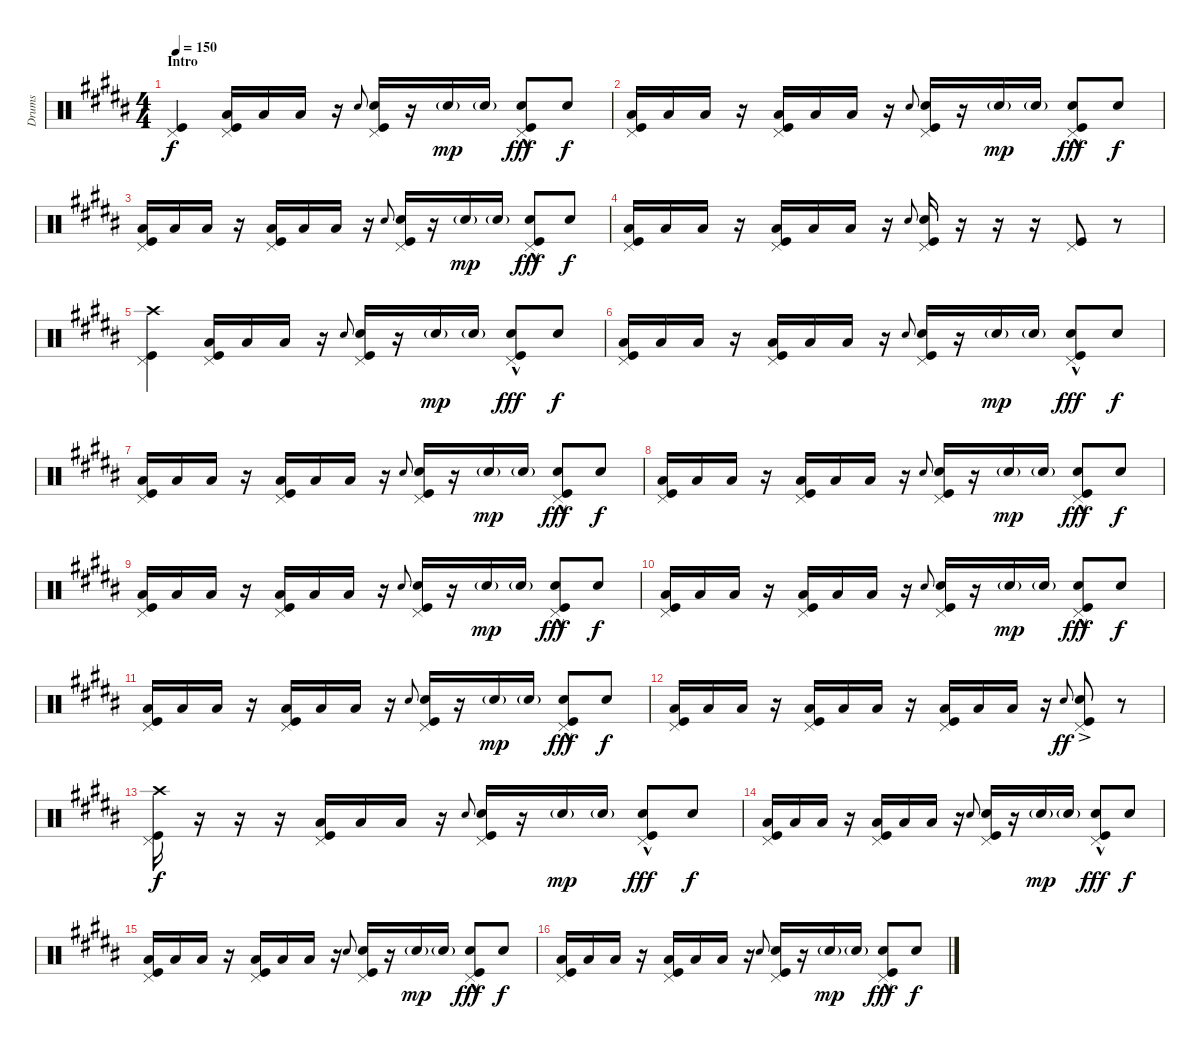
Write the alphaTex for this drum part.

\track ("Drums" "Drums") {instrument percussion}
\staff {score}
\articulation defaults
\ts (4 4)
\section ("" "Intro")
\tempo 150
\clef neutral
\ks b
("Kick (hit)" "Pedal Hi-Hat (hit)").4{dy f} ("Low Floor Tom (hit)" "Kick (hit)" "Pedal Hi-Hat (hit)").16 "Low Floor Tom (hit)".16 "Low Floor Tom (hit)".16 r.16 "Snare (hit) 2".8{gr onbeat} ("Snare (hit) 2" "Kick (hit)" "Pedal Hi-Hat (hit)").16 r.16 "Snare (hit) 2"{g}.16{dy mp} "Snare (hit) 2"{g}.16 ("Snare (hit) 2"{hac} "Kick (hit)" "Pedal Hi-Hat (hit)").8{dy fff} "Snare (hit) 2".8{dy f} |
("Low Floor Tom (hit)" "Kick (hit)" "Pedal Hi-Hat (hit)").16 "Low Floor Tom (hit)".16 "Low Floor Tom (hit)".16 r.16 ("Low Floor Tom (hit)" "Kick (hit)" "Pedal Hi-Hat (hit)").16 "Low Floor Tom (hit)".16 "Low Floor Tom (hit)".16 r.16 "Snare (hit) 2".8{gr onbeat} ("Snare (hit) 2" "Kick (hit)" "Pedal Hi-Hat (hit)").16 r.16 "Snare (hit) 2"{g}.16{dy mp} "Snare (hit) 2"{g}.16 ("Snare (hit) 2"{hac} "Kick (hit)" "Pedal Hi-Hat (hit)").8{dy fff} "Snare (hit) 2".8{dy f} |
("Low Floor Tom (hit)" "Kick (hit)" "Pedal Hi-Hat (hit)").16 "Low Floor Tom (hit)".16 "Low Floor Tom (hit)".16 r.16 ("Low Floor Tom (hit)" "Kick (hit)" "Pedal Hi-Hat (hit)").16 "Low Floor Tom (hit)".16 "Low Floor Tom (hit)".16 r.16 "Snare (hit) 2".8{gr onbeat} ("Snare (hit) 2" "Kick (hit)" "Pedal Hi-Hat (hit)").16 r.16 "Snare (hit) 2"{g}.16{dy mp} "Snare (hit) 2"{g}.16 ("Snare (hit) 2"{hac} "Kick (hit)" "Pedal Hi-Hat (hit)").8{dy fff} "Snare (hit) 2".8{dy f} |
("Low Floor Tom (hit)" "Kick (hit)" "Pedal Hi-Hat (hit)").16 "Low Floor Tom (hit)".16 "Low Floor Tom (hit)".16 r.16 ("Low Floor Tom (hit)" "Kick (hit)" "Pedal Hi-Hat (hit)").16 "Low Floor Tom (hit)".16 "Low Floor Tom (hit)".16 r.16 "Snare (hit) 2".8{gr onbeat} ("Snare (hit) 2" "Kick (hit)" "Pedal Hi-Hat (hit)").16 r.16 r.16 r.16 ("Kick (hit)" "Pedal Hi-Hat (hit)").8 r.8 |
("Crash high (hit)" "Kick (hit)" "Pedal Hi-Hat (hit)").4 ("Low Floor Tom (hit)" "Kick (hit)" "Pedal Hi-Hat (hit)").16 "Low Floor Tom (hit)".16 "Low Floor Tom (hit)".16 r.16 "Snare (hit) 2".8{gr onbeat} ("Snare (hit) 2" "Kick (hit)" "Pedal Hi-Hat (hit)").16 r.16 "Snare (hit) 2"{g}.16{dy mp} "Snare (hit) 2"{g}.16 ("Snare (hit) 2"{hac} "Kick (hit)" "Pedal Hi-Hat (hit)").8{dy fff} "Snare (hit) 2".8{dy f} |
("Low Floor Tom (hit)" "Kick (hit)" "Pedal Hi-Hat (hit)").16 "Low Floor Tom (hit)".16 "Low Floor Tom (hit)".16 r.16 ("Low Floor Tom (hit)" "Kick (hit)" "Pedal Hi-Hat (hit)").16 "Low Floor Tom (hit)".16 "Low Floor Tom (hit)".16 r.16 "Snare (hit) 2".8{gr onbeat} ("Snare (hit) 2" "Kick (hit)" "Pedal Hi-Hat (hit)").16 r.16 "Snare (hit) 2"{g}.16{dy mp} "Snare (hit) 2"{g}.16 ("Snare (hit) 2"{hac} "Kick (hit)" "Pedal Hi-Hat (hit)").8{dy fff} "Snare (hit) 2".8{dy f} |
("Low Floor Tom (hit)" "Kick (hit)" "Pedal Hi-Hat (hit)").16 "Low Floor Tom (hit)".16 "Low Floor Tom (hit)".16 r.16 ("Low Floor Tom (hit)" "Kick (hit)" "Pedal Hi-Hat (hit)").16 "Low Floor Tom (hit)".16 "Low Floor Tom (hit)".16 r.16 "Snare (hit) 2".8{gr onbeat} ("Snare (hit) 2" "Kick (hit)" "Pedal Hi-Hat (hit)").16 r.16 "Snare (hit) 2"{g}.16{dy mp} "Snare (hit) 2"{g}.16 ("Snare (hit) 2"{hac} "Kick (hit)" "Pedal Hi-Hat (hit)").8{dy fff} "Snare (hit) 2".8{dy f} |
("Low Floor Tom (hit)" "Kick (hit)" "Pedal Hi-Hat (hit)").16 "Low Floor Tom (hit)".16 "Low Floor Tom (hit)".16 r.16 ("Low Floor Tom (hit)" "Kick (hit)" "Pedal Hi-Hat (hit)").16 "Low Floor Tom (hit)".16 "Low Floor Tom (hit)".16 r.16 "Snare (hit) 2".8{gr onbeat} ("Snare (hit) 2" "Kick (hit)" "Pedal Hi-Hat (hit)").16 r.16 "Snare (hit) 2"{g}.16{dy mp} "Snare (hit) 2"{g}.16 ("Snare (hit) 2"{hac} "Kick (hit)" "Pedal Hi-Hat (hit)").8{dy fff} "Snare (hit) 2".8{dy f} |
("Low Floor Tom (hit)" "Kick (hit)" "Pedal Hi-Hat (hit)").16 "Low Floor Tom (hit)".16 "Low Floor Tom (hit)".16 r.16 ("Low Floor Tom (hit)" "Kick (hit)" "Pedal Hi-Hat (hit)").16 "Low Floor Tom (hit)".16 "Low Floor Tom (hit)".16 r.16 "Snare (hit) 2".8{gr onbeat} ("Snare (hit) 2" "Kick (hit)" "Pedal Hi-Hat (hit)").16 r.16 "Snare (hit) 2"{g}.16{dy mp} "Snare (hit) 2"{g}.16 ("Snare (hit) 2"{hac} "Kick (hit)" "Pedal Hi-Hat (hit)").8{dy fff} "Snare (hit) 2".8{dy f} |
("Low Floor Tom (hit)" "Kick (hit)" "Pedal Hi-Hat (hit)").16 "Low Floor Tom (hit)".16 "Low Floor Tom (hit)".16 r.16 ("Low Floor Tom (hit)" "Kick (hit)" "Pedal Hi-Hat (hit)").16 "Low Floor Tom (hit)".16 "Low Floor Tom (hit)".16 r.16 "Snare (hit) 2".8{gr onbeat} ("Snare (hit) 2" "Kick (hit)" "Pedal Hi-Hat (hit)").16 r.16 "Snare (hit) 2"{g}.16{dy mp} "Snare (hit) 2"{g}.16 ("Snare (hit) 2"{hac} "Kick (hit)" "Pedal Hi-Hat (hit)").8{dy fff} "Snare (hit) 2".8{dy f} |
("Low Floor Tom (hit)" "Kick (hit)" "Pedal Hi-Hat (hit)").16 "Low Floor Tom (hit)".16 "Low Floor Tom (hit)".16 r.16 ("Low Floor Tom (hit)" "Kick (hit)" "Pedal Hi-Hat (hit)").16 "Low Floor Tom (hit)".16 "Low Floor Tom (hit)".16 r.16 "Snare (hit) 2".8{gr onbeat} ("Snare (hit) 2" "Kick (hit)" "Pedal Hi-Hat (hit)").16 r.16 "Snare (hit) 2"{g}.16{dy mp} "Snare (hit) 2"{g}.16 ("Snare (hit) 2"{hac} "Kick (hit)" "Pedal Hi-Hat (hit)").8{dy fff} "Snare (hit) 2".8{dy f} |
("Low Floor Tom (hit)" "Kick (hit)" "Pedal Hi-Hat (hit)").16 "Low Floor Tom (hit)".16 "Low Floor Tom (hit)".16 r.16 ("Low Floor Tom (hit)" "Kick (hit)" "Pedal Hi-Hat (hit)").16 "Low Floor Tom (hit)".16 "Low Floor Tom (hit)".16 r.16 ("Low Floor Tom (hit)" "Kick (hit)" "Pedal Hi-Hat (hit)").16 "Low Floor Tom (hit)".16 "Low Floor Tom (hit)".16 r.16 "Snare (hit) 2".8{gr onbeat dy ff} ("Snare (hit) 2"{ac} "Kick (hit)" "Pedal Hi-Hat (hit)").8 r.8 |
("Crash high (hit)" "Kick (hit)" "Pedal Hi-Hat (hit)").16{dy f} r.16 r.16 r.16 ("Low Floor Tom (hit)" "Kick (hit)" "Pedal Hi-Hat (hit)").16 "Low Floor Tom (hit)".16 "Low Floor Tom (hit)".16 r.16 "Snare (hit) 2".8{gr onbeat} ("Snare (hit) 2" "Kick (hit)" "Pedal Hi-Hat (hit)").16 r.16 "Snare (hit) 2"{g}.16{dy mp} "Snare (hit) 2"{g}.16 ("Snare (hit) 2"{hac} "Kick (hit)" "Pedal Hi-Hat (hit)").8{dy fff} "Snare (hit) 2".8{dy f} |
("Low Floor Tom (hit)" "Kick (hit)" "Pedal Hi-Hat (hit)").16 "Low Floor Tom (hit)".16 "Low Floor Tom (hit)".16 r.16 ("Low Floor Tom (hit)" "Kick (hit)" "Pedal Hi-Hat (hit)").16 "Low Floor Tom (hit)".16 "Low Floor Tom (hit)".16 r.16 "Snare (hit) 2".8{gr onbeat} ("Snare (hit) 2" "Kick (hit)" "Pedal Hi-Hat (hit)").16 r.16 "Snare (hit) 2"{g}.16{dy mp} "Snare (hit) 2"{g}.16 ("Snare (hit) 2"{hac} "Kick (hit)" "Pedal Hi-Hat (hit)").8{dy fff} "Snare (hit) 2".8{dy f} |
("Low Floor Tom (hit)" "Kick (hit)" "Pedal Hi-Hat (hit)").16 "Low Floor Tom (hit)".16 "Low Floor Tom (hit)".16 r.16 ("Low Floor Tom (hit)" "Kick (hit)" "Pedal Hi-Hat (hit)").16 "Low Floor Tom (hit)".16 "Low Floor Tom (hit)".16 r.16 "Snare (hit) 2".8{gr onbeat} ("Snare (hit) 2" "Kick (hit)" "Pedal Hi-Hat (hit)").16 r.16 "Snare (hit) 2"{g}.16{dy mp} "Snare (hit) 2"{g}.16 ("Snare (hit) 2"{hac} "Kick (hit)" "Pedal Hi-Hat (hit)").8{dy fff} "Snare (hit) 2".8{dy f} |
("Low Floor Tom (hit)" "Kick (hit)" "Pedal Hi-Hat (hit)").16 "Low Floor Tom (hit)".16 "Low Floor Tom (hit)".16 r.16 ("Low Floor Tom (hit)" "Kick (hit)" "Pedal Hi-Hat (hit)").16 "Low Floor Tom (hit)".16 "Low Floor Tom (hit)".16 r.16 "Snare (hit) 2".8{gr onbeat} ("Snare (hit) 2" "Kick (hit)" "Pedal Hi-Hat (hit)").16 r.16 "Snare (hit) 2"{g}.16{dy mp} "Snare (hit) 2"{g}.16 ("Snare (hit) 2"{hac} "Kick (hit)" "Pedal Hi-Hat (hit)").8{dy fff} "Snare (hit) 2".8{dy f}
